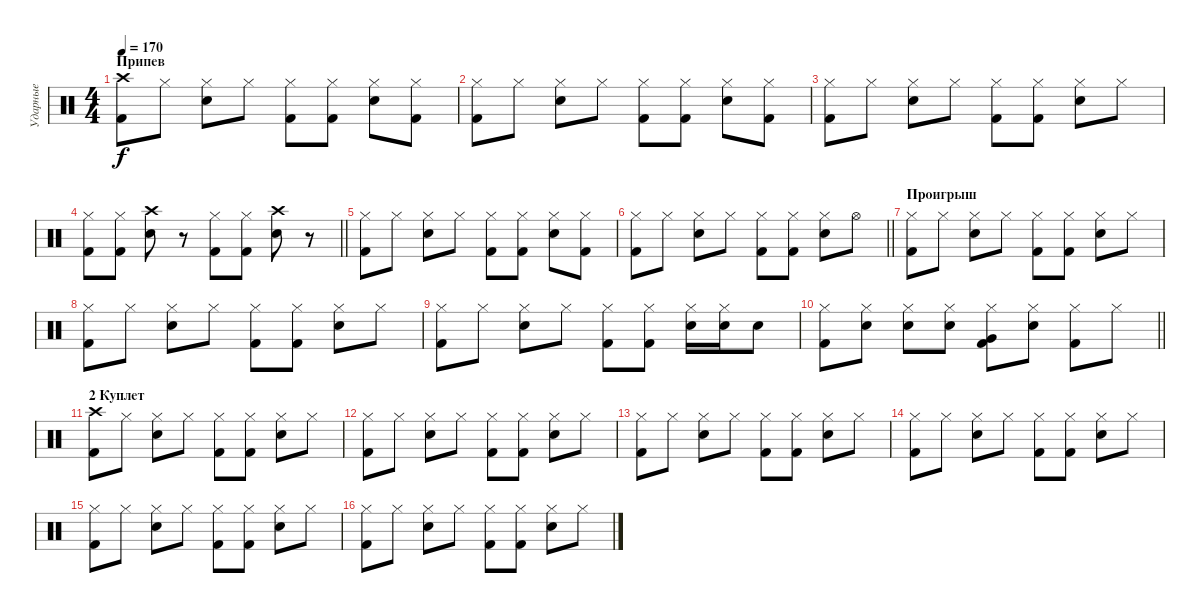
\track ("Ударные" "Ударные") {instrument percussion}
\staff {score}
\articulation defaults
\ts (4 4)
\section ("" "Припев")
\tempo 170
\clef neutral
\ks c
("Crash high (hit)" "Kick (hit) 2").8{dy f} "Hi-Hat (closed)".8 ("Hi-Hat (closed)" "Snare (hit) 2").8 "Hi-Hat (closed)".8 ("Hi-Hat (closed)" "Kick (hit) 2").8 ("Hi-Hat (closed)" "Kick (hit) 2").8 ("Hi-Hat (closed)" "Snare (hit) 2").8 ("Hi-Hat (closed)" "Kick (hit) 2").8 |
("Hi-Hat (closed)" "Kick (hit) 2").8 "Hi-Hat (closed)".8 ("Hi-Hat (closed)" "Snare (hit) 2").8 "Hi-Hat (closed)".8 ("Hi-Hat (closed)" "Kick (hit) 2").8 ("Hi-Hat (closed)" "Kick (hit) 2").8 ("Hi-Hat (closed)" "Snare (hit) 2").8 ("Hi-Hat (closed)" "Kick (hit) 2").8 |
("Hi-Hat (closed)" "Kick (hit) 2").8 "Hi-Hat (closed)".8 ("Hi-Hat (closed)" "Snare (hit) 2").8 "Hi-Hat (closed)".8 ("Hi-Hat (closed)" "Kick (hit) 2").8 ("Hi-Hat (closed)" "Kick (hit) 2").8 ("Hi-Hat (closed)" "Snare (hit) 2").8 "Hi-Hat (closed)".8 |
\barLineRight lightlight
("Hi-Hat (closed)" "Kick (hit) 2").8 ("Hi-Hat (closed)" "Kick (hit) 2").8 ("Crash high (hit)" "Snare (hit) 2").8 r.8 ("Hi-Hat (closed)" "Kick (hit) 2").8 ("Hi-Hat (closed)" "Kick (hit) 2").8 ("Crash high (hit)" "Snare (hit) 2").8 r.8 |
("Hi-Hat (closed)" "Kick (hit) 2").8 "Hi-Hat (closed)".8 ("Hi-Hat (closed)" "Snare (hit) 2").8 "Hi-Hat (closed)".8 ("Hi-Hat (closed)" "Kick (hit) 2").8 ("Hi-Hat (closed)" "Kick (hit) 2").8 ("Hi-Hat (closed)" "Snare (hit) 2").8 ("Hi-Hat (closed)" "Kick (hit) 2").8 |
\barLineRight lightlight
("Hi-Hat (closed)" "Kick (hit) 2").8 "Hi-Hat (closed)".8 ("Hi-Hat (closed)" "Snare (hit) 2").8 "Hi-Hat (closed)".8 ("Hi-Hat (closed)" "Kick (hit) 2").8 ("Hi-Hat (closed)" "Kick (hit) 2").8 ("Hi-Hat (closed)" "Snare (hit) 2").8 "Hi-Hat (open)".8 |
\section ("" "Проигрыш")
("Hi-Hat (closed)" "Kick (hit) 2").8 "Hi-Hat (closed)".8 ("Hi-Hat (closed)" "Snare (hit) 2").8 "Hi-Hat (closed)".8 ("Hi-Hat (closed)" "Kick (hit) 2").8 ("Hi-Hat (closed)" "Kick (hit) 2").8 ("Hi-Hat (closed)" "Snare (hit) 2").8 "Hi-Hat (closed)".8 |
("Hi-Hat (closed)" "Kick (hit) 2").8 "Hi-Hat (closed)".8 ("Hi-Hat (closed)" "Snare (hit) 2").8 "Hi-Hat (closed)".8 ("Hi-Hat (closed)" "Kick (hit) 2").8 ("Hi-Hat (closed)" "Kick (hit) 2").8 ("Hi-Hat (closed)" "Snare (hit) 2").8 "Hi-Hat (closed)".8 |
("Hi-Hat (closed)" "Kick (hit) 2").8 "Hi-Hat (closed)".8 ("Hi-Hat (closed)" "Snare (hit) 2").8 "Hi-Hat (closed)".8 ("Hi-Hat (closed)" "Kick (hit) 2").8 ("Hi-Hat (closed)" "Kick (hit) 2").8 ("Hi-Hat (closed)" "Snare (hit) 2").16 ("Hi-Hat (closed)" "Snare (hit) 2").16 "Snare (hit) 2".8 |
\barLineRight lightlight
("Hi-Hat (closed)" "Kick (hit) 2").8 ("Hi-Hat (closed)" "Snare (hit) 2").8 ("Hi-Hat (closed)" "Snare (hit) 2").8 ("Hi-Hat (closed)" "Snare (hit) 2").8 ("Hi-Hat (closed)" "Very Low Tom (hit)" "Kick (hit) 2").8 ("Hi-Hat (closed)" "Snare (hit) 2").8 ("Hi-Hat (closed)" "Kick (hit) 2").8 "Hi-Hat (closed)".8 |
\section ("" "2 Куплет")
("Crash high (hit)" "Kick (hit) 2").8 "Hi-Hat (closed)".8 ("Hi-Hat (closed)" "Snare (hit) 2").8 "Hi-Hat (closed)".8 ("Hi-Hat (closed)" "Kick (hit) 2").8 ("Hi-Hat (closed)" "Kick (hit) 2").8 ("Hi-Hat (closed)" "Snare (hit) 2").8 "Hi-Hat (closed)".8 |
("Hi-Hat (closed)" "Kick (hit) 2").8 "Hi-Hat (closed)".8 ("Hi-Hat (closed)" "Snare (hit) 2").8 "Hi-Hat (closed)".8 ("Hi-Hat (closed)" "Kick (hit) 2").8 ("Hi-Hat (closed)" "Kick (hit) 2").8 ("Hi-Hat (closed)" "Snare (hit) 2").8 "Hi-Hat (closed)".8 |
("Hi-Hat (closed)" "Kick (hit) 2").8 "Hi-Hat (closed)".8 ("Hi-Hat (closed)" "Snare (hit) 2").8 "Hi-Hat (closed)".8 ("Hi-Hat (closed)" "Kick (hit) 2").8 ("Hi-Hat (closed)" "Kick (hit) 2").8 ("Hi-Hat (closed)" "Snare (hit) 2").8 "Hi-Hat (closed)".8 |
("Hi-Hat (closed)" "Kick (hit) 2").8 "Hi-Hat (closed)".8 ("Hi-Hat (closed)" "Snare (hit) 2").8 "Hi-Hat (closed)".8 ("Hi-Hat (closed)" "Kick (hit) 2").8 ("Hi-Hat (closed)" "Kick (hit) 2").8 ("Hi-Hat (closed)" "Snare (hit) 2").8 "Hi-Hat (closed)".8 |
("Hi-Hat (closed)" "Kick (hit) 2").8 "Hi-Hat (closed)".8 ("Hi-Hat (closed)" "Snare (hit) 2").8 "Hi-Hat (closed)".8 ("Hi-Hat (closed)" "Kick (hit) 2").8 ("Hi-Hat (closed)" "Kick (hit) 2").8 ("Hi-Hat (closed)" "Snare (hit) 2").8 "Hi-Hat (closed)".8 |
("Hi-Hat (closed)" "Kick (hit) 2").8 "Hi-Hat (closed)".8 ("Hi-Hat (closed)" "Snare (hit) 2").8 "Hi-Hat (closed)".8 ("Hi-Hat (closed)" "Kick (hit) 2").8 ("Hi-Hat (closed)" "Kick (hit) 2").8 ("Hi-Hat (closed)" "Snare (hit) 2").8 "Hi-Hat (closed)".8
